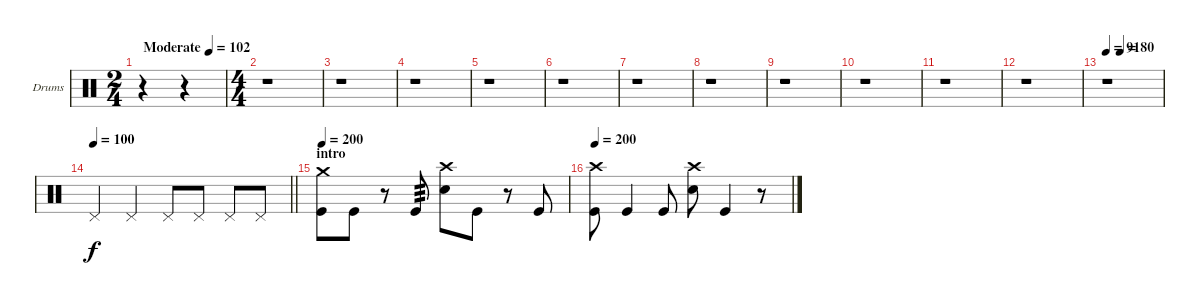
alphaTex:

\bracketExtendMode groupsimilarinstruments
\firstSystemTrackNameOrientation horizontal
\otherSystemsTrackNameOrientation horizontal
\track ("Drumkit" "Drums") {instrument percussion}
\staff {score}
\articulation defaults
\ts (2 4)
\beaming (8 2 2)
\tempo (102 "Moderate")
\clef neutral
\ks c
r.4{dy f} r.4 |
\ts (4 4)
\beaming (8 2 2 2 2)
r.1 |
r.1 |
r.1 |
r.1 |
r.1 |
r.1 |
r.1 |
r.1 |
r.1 |
r.1 |
r.1 |
\tempo 91
\tempo (80 0.25)
r.1 |
\tempo 100
\barLineRight lightlight "Pedal Hi-Hat (hit)".4 "Pedal Hi-Hat (hit)".4 "Pedal Hi-Hat (hit)".8 "Pedal Hi-Hat (hit)".8 "Pedal Hi-Hat (hit)".8 "Pedal Hi-Hat (hit)".8
|
\section ("" "intro")
\tempo 200
("Crash medium (hit)" "Kick (hit)").8 "Kick (hit)".8 r.8 "Kick (hit)".8{tp 3} ("Crash high (hit)" "Snare (hit) 2").8 "Kick (hit)".8 r.8 "Kick (hit)".8 |
\tempo 200
("Crash high (hit)" "Kick (hit)").8 "Kick (hit)".4 "Kick (hit)".8 ("Crash high (hit)" "Snare (hit) 2").8 "Kick (hit)".4 r.8
